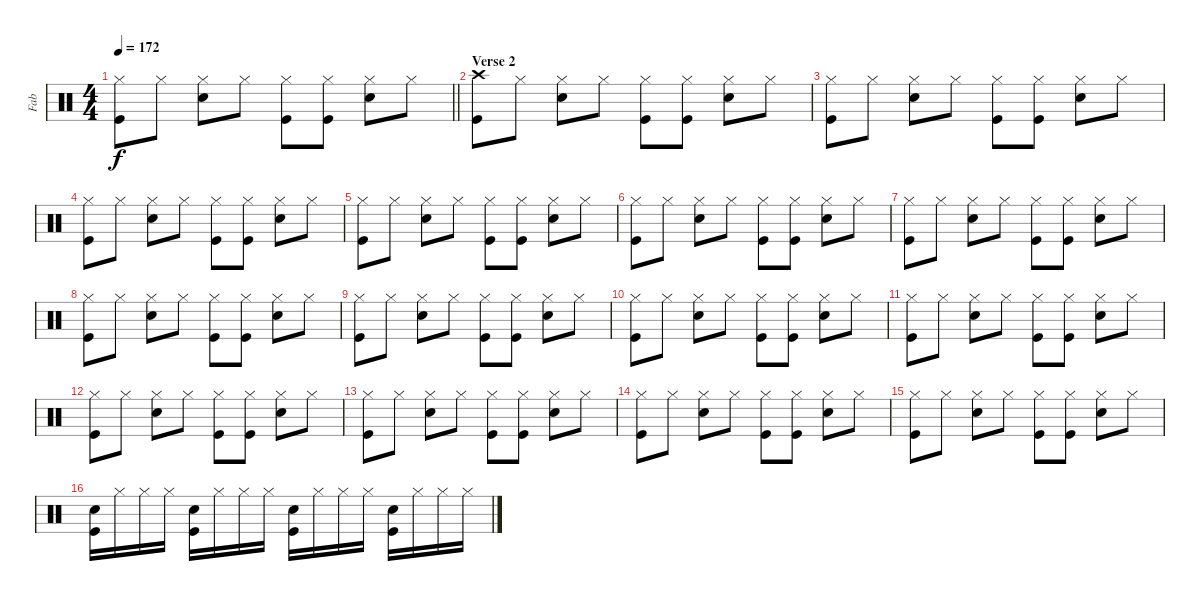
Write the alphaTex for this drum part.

\track ("Fab" "Fab") {instrument percussion}
\staff {score}
\articulation defaults
\ts (4 4)
\tempo 172
\clef neutral
\barLineRight lightlight
\ks c
("Hi-Hat (closed)" "Kick (hit)").8{dy f} "Hi-Hat (closed)".8 ("Hi-Hat (closed)" "Snare (hit) 2").8 "Hi-Hat (closed)".8 ("Hi-Hat (closed)" "Kick (hit)").8 ("Hi-Hat (closed)" "Kick (hit)").8 ("Hi-Hat (closed)" "Snare (hit) 2").8 "Hi-Hat (closed)".8 |
\section ("" "Verse 2")
("Crash high (hit)" "Kick (hit)").8 "Hi-Hat (closed)".8 ("Hi-Hat (closed)" "Snare (hit) 2").8 "Hi-Hat (closed)".8 ("Hi-Hat (closed)" "Kick (hit)").8 ("Hi-Hat (closed)" "Kick (hit)").8 ("Hi-Hat (closed)" "Snare (hit) 2").8 "Hi-Hat (closed)".8 |
("Hi-Hat (closed)" "Kick (hit)").8 "Hi-Hat (closed)".8 ("Hi-Hat (closed)" "Snare (hit) 2").8 "Hi-Hat (closed)".8 ("Hi-Hat (closed)" "Kick (hit)").8 ("Hi-Hat (closed)" "Kick (hit)").8 ("Hi-Hat (closed)" "Snare (hit) 2").8 "Hi-Hat (closed)".8 |
("Hi-Hat (closed)" "Kick (hit)").8 "Hi-Hat (closed)".8 ("Hi-Hat (closed)" "Snare (hit) 2").8 "Hi-Hat (closed)".8 ("Hi-Hat (closed)" "Kick (hit)").8 ("Hi-Hat (closed)" "Kick (hit)").8 ("Hi-Hat (closed)" "Snare (hit) 2").8 "Hi-Hat (closed)".8 |
("Hi-Hat (closed)" "Kick (hit)").8 "Hi-Hat (closed)".8 ("Hi-Hat (closed)" "Snare (hit) 2").8 "Hi-Hat (closed)".8 ("Hi-Hat (closed)" "Kick (hit)").8 ("Hi-Hat (closed)" "Kick (hit)").8 ("Hi-Hat (closed)" "Snare (hit) 2").8 "Hi-Hat (closed)".8 |
("Hi-Hat (closed)" "Kick (hit)").8 "Hi-Hat (closed)".8 ("Hi-Hat (closed)" "Snare (hit) 2").8 "Hi-Hat (closed)".8 ("Hi-Hat (closed)" "Kick (hit)").8 ("Hi-Hat (closed)" "Kick (hit)").8 ("Hi-Hat (closed)" "Snare (hit) 2").8 "Hi-Hat (closed)".8 |
("Hi-Hat (closed)" "Kick (hit)").8 "Hi-Hat (closed)".8 ("Hi-Hat (closed)" "Snare (hit) 2").8 "Hi-Hat (closed)".8 ("Hi-Hat (closed)" "Kick (hit)").8 ("Hi-Hat (closed)" "Kick (hit)").8 ("Hi-Hat (closed)" "Snare (hit) 2").8 "Hi-Hat (closed)".8 |
("Hi-Hat (closed)" "Kick (hit)").8 "Hi-Hat (closed)".8 ("Hi-Hat (closed)" "Snare (hit) 2").8 "Hi-Hat (closed)".8 ("Hi-Hat (closed)" "Kick (hit)").8 ("Hi-Hat (closed)" "Kick (hit)").8 ("Hi-Hat (closed)" "Snare (hit) 2").8 "Hi-Hat (closed)".8 |
("Hi-Hat (closed)" "Kick (hit)").8 "Hi-Hat (closed)".8 ("Hi-Hat (closed)" "Snare (hit) 2").8 "Hi-Hat (closed)".8 ("Hi-Hat (closed)" "Kick (hit)").8 ("Hi-Hat (closed)" "Kick (hit)").8 ("Hi-Hat (closed)" "Snare (hit) 2").8 "Hi-Hat (closed)".8 |
("Hi-Hat (closed)" "Kick (hit)").8 "Hi-Hat (closed)".8 ("Hi-Hat (closed)" "Snare (hit) 2").8 "Hi-Hat (closed)".8 ("Hi-Hat (closed)" "Kick (hit)").8 ("Hi-Hat (closed)" "Kick (hit)").8 ("Hi-Hat (closed)" "Snare (hit) 2").8 "Hi-Hat (closed)".8 |
("Hi-Hat (closed)" "Kick (hit)").8 "Hi-Hat (closed)".8 ("Hi-Hat (closed)" "Snare (hit) 2").8 "Hi-Hat (closed)".8 ("Hi-Hat (closed)" "Kick (hit)").8 ("Hi-Hat (closed)" "Kick (hit)").8 ("Hi-Hat (closed)" "Snare (hit) 2").8 "Hi-Hat (closed)".8 |
("Hi-Hat (closed)" "Kick (hit)").8 "Hi-Hat (closed)".8 ("Hi-Hat (closed)" "Snare (hit) 2").8 "Hi-Hat (closed)".8 ("Hi-Hat (closed)" "Kick (hit)").8 ("Hi-Hat (closed)" "Kick (hit)").8 ("Hi-Hat (closed)" "Snare (hit) 2").8 "Hi-Hat (closed)".8 |
("Hi-Hat (closed)" "Kick (hit)").8 "Hi-Hat (closed)".8 ("Hi-Hat (closed)" "Snare (hit) 2").8 "Hi-Hat (closed)".8 ("Hi-Hat (closed)" "Kick (hit)").8 ("Hi-Hat (closed)" "Kick (hit)").8 ("Hi-Hat (closed)" "Snare (hit) 2").8 "Hi-Hat (closed)".8 |
("Hi-Hat (closed)" "Kick (hit)").8 "Hi-Hat (closed)".8 ("Hi-Hat (closed)" "Snare (hit) 2").8 "Hi-Hat (closed)".8 ("Hi-Hat (closed)" "Kick (hit)").8 ("Hi-Hat (closed)" "Kick (hit)").8 ("Hi-Hat (closed)" "Snare (hit) 2").8 "Hi-Hat (closed)".8 |
("Hi-Hat (closed)" "Kick (hit)").8 "Hi-Hat (closed)".8 ("Hi-Hat (closed)" "Snare (hit) 2").8 "Hi-Hat (closed)".8 ("Hi-Hat (closed)" "Kick (hit)").8 ("Hi-Hat (closed)" "Kick (hit)").8 ("Hi-Hat (closed)" "Snare (hit) 2").8 "Hi-Hat (closed)".8 |
("Snare (hit) 2" "Kick (hit)").16 "Hi-Hat (closed)".16 "Hi-Hat (closed)".16 "Hi-Hat (closed)".16 ("Snare (hit) 2" "Kick (hit)").16 "Hi-Hat (closed)".16 "Hi-Hat (closed)".16 "Hi-Hat (closed)".16 ("Snare (hit) 2" "Kick (hit)").16 "Hi-Hat (closed)".16 "Hi-Hat (closed)".16 "Hi-Hat (closed)".16 ("Snare (hit) 2" "Kick (hit)").16 "Hi-Hat (closed)".16 "Hi-Hat (closed)".16 "Hi-Hat (closed)".16
